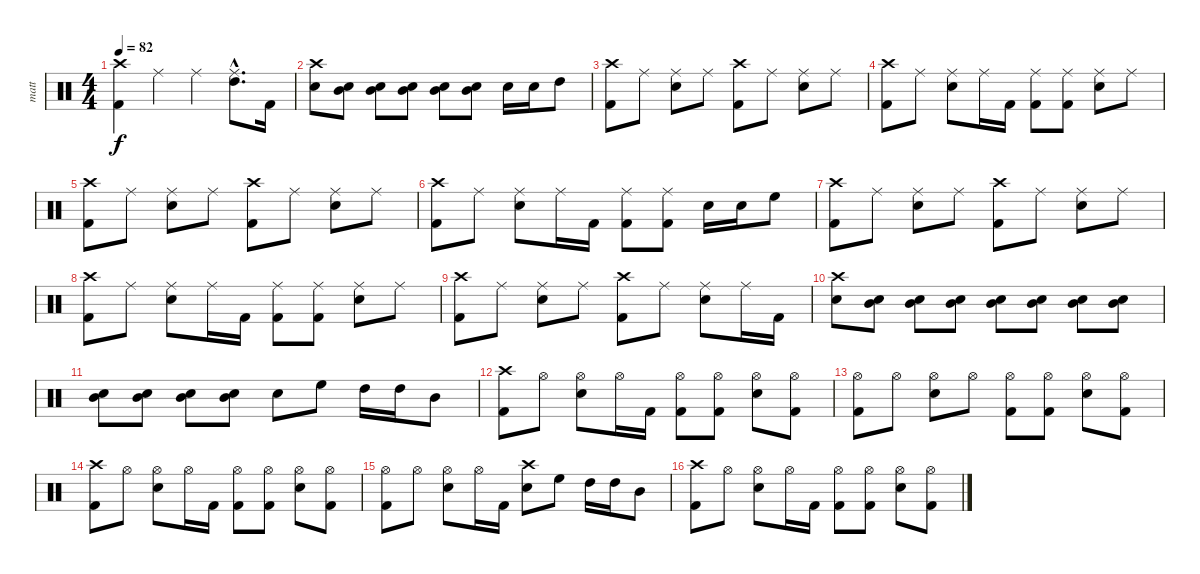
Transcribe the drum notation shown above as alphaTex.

\track ("matt" "matt") {instrument percussion}
\staff {score}
\articulation defaults
\ts (4 4)
\tempo 82
\clef neutral
\ks c
("Crash high (hit)" "Kick (hit) 2").4{dy f} "Ride (middle)".4 "Ride (middle)".4 ("Ride (middle)"{hac} "High Tom (hit)"{hac}).8{d} "Kick (hit) 2".16 |
("Crash high (hit)" "Electric Snare (hit)").8 ("Electric Snare (hit)" "Mid Tom (hit)").8 ("Electric Snare (hit)" "Mid Tom (hit)").8 ("Electric Snare (hit)" "Mid Tom (hit)").8 ("Electric Snare (hit)" "Mid Tom (hit)").8 ("Electric Snare (hit)" "Mid Tom (hit)").8 "Electric Snare (hit)".16 "Electric Snare (hit)".16 "High Tom (hit)".8 |
("Crash high (hit)" "Kick (hit) 2").8 "Ride (middle)".8 ("Ride (middle)" "Electric Snare (hit)").8 "Ride (middle)".8 ("Crash high (hit)" "Kick (hit) 2").8 "Ride (middle)".8 ("Ride (middle)" "Electric Snare (hit)").8 "Ride (middle)".8 |
("Crash high (hit)" "Kick (hit) 2").8 "Ride (middle)".8 ("Ride (middle)" "Electric Snare (hit)").8 "Ride (middle)".16 "Kick (hit) 2".16 ("Ride (middle)" "Kick (hit) 2").8 ("Ride (middle)" "Kick (hit) 2").8 ("Ride (middle)" "Electric Snare (hit)").8 "Ride (middle)".8 |
("Crash high (hit)" "Kick (hit) 2").8 "Ride (middle)".8 ("Ride (middle)" "Electric Snare (hit)").8 "Ride (middle)".8 ("Crash high (hit)" "Kick (hit) 2").8 "Ride (middle)".8 ("Ride (middle)" "Electric Snare (hit)").8 "Ride (middle)".8 |
("Crash high (hit)" "Kick (hit) 2").8 "Ride (middle)".8 ("Ride (middle)" "Electric Snare (hit)").8 "Ride (middle)".16 "Kick (hit) 2".16 ("Ride (middle)" "Kick (hit) 2").8 ("Ride (middle)" "Kick (hit) 2").8 "Electric Snare (hit)".16 "Electric Snare (hit)".16 "High Floor Tom (hit)".8 |
("Crash high (hit)" "Kick (hit) 2").8 "Ride (middle)".8 ("Ride (middle)" "Electric Snare (hit)").8 "Ride (middle)".8 ("Crash high (hit)" "Kick (hit) 2").8 "Ride (middle)".8 ("Ride (middle)" "Electric Snare (hit)").8 "Ride (middle)".8 |
("Crash high (hit)" "Kick (hit) 2").8 "Ride (middle)".8 ("Ride (middle)" "Electric Snare (hit)").8 "Ride (middle)".16 "Kick (hit) 2".16 ("Ride (middle)" "Kick (hit) 2").8 ("Ride (middle)" "Kick (hit) 2").8 ("Ride (middle)" "Electric Snare (hit)").8 "Ride (middle)".8 |
("Crash high (hit)" "Kick (hit) 2").8 "Ride (middle)".8 ("Ride (middle)" "Electric Snare (hit)").8 "Ride (middle)".8 ("Crash high (hit)" "Kick (hit) 2").8 "Ride (middle)".8 ("Ride (middle)" "Electric Snare (hit)").8 "Ride (middle)".16 "Kick (hit) 2".16 |
("Crash high (hit)" "Electric Snare (hit)").8 ("Electric Snare (hit)" "Mid Tom (hit)").8 ("Electric Snare (hit)" "Mid Tom (hit)").8 ("Electric Snare (hit)" "Mid Tom (hit)").8 ("Electric Snare (hit)" "Mid Tom (hit)").8 ("Electric Snare (hit)" "Mid Tom (hit)").8 ("Electric Snare (hit)" "Mid Tom (hit)").8 ("Electric Snare (hit)" "Mid Tom (hit)").8 |
("Electric Snare (hit)" "Mid Tom (hit)").8 ("Electric Snare (hit)" "Mid Tom (hit)").8 ("Electric Snare (hit)" "Mid Tom (hit)").8 ("Electric Snare (hit)" "Mid Tom (hit)").8 "Electric Snare (hit)".8 "High Floor Tom (hit)".8 "High Tom (hit)".16 "High Tom (hit)".16 "Mid Tom (hit)".8 |
("Crash high (hit)" "Kick (hit) 2").8 "Hi-Hat (open)".8 ("Hi-Hat (open)" "Electric Snare (hit)").8 "Hi-Hat (open)".16 "Kick (hit) 2".16 ("Hi-Hat (open)" "Kick (hit) 2").8 ("Hi-Hat (open)" "Kick (hit) 2").8 ("Hi-Hat (open)" "Electric Snare (hit)").8 ("Hi-Hat (open)" "Kick (hit) 2").8 |
("Hi-Hat (open)" "Kick (hit) 2").8 "Hi-Hat (open)".8 ("Hi-Hat (open)" "Electric Snare (hit)").8 "Hi-Hat (open)".8 ("Hi-Hat (open)" "Kick (hit) 2").8 ("Hi-Hat (open)" "Kick (hit) 2").8 ("Hi-Hat (open)" "Electric Snare (hit)").8 ("Hi-Hat (open)" "Kick (hit) 2").8 |
("Crash high (hit)" "Kick (hit) 2").8 "Hi-Hat (open)".8 ("Hi-Hat (open)" "Electric Snare (hit)").8 "Hi-Hat (open)".16 "Kick (hit) 2".16 ("Hi-Hat (open)" "Kick (hit) 2").8 ("Hi-Hat (open)" "Kick (hit) 2").8 ("Hi-Hat (open)" "Electric Snare (hit)").8 ("Hi-Hat (open)" "Kick (hit) 2").8 |
("Hi-Hat (open)" "Kick (hit) 2").8 "Hi-Hat (open)".8 ("Hi-Hat (open)" "Electric Snare (hit)").8 "Hi-Hat (open)".16 "Kick (hit) 2".16 ("Crash high (hit)" "Electric Snare (hit)").8 "High Floor Tom (hit)".8 "High Tom (hit)".16 "High Tom (hit)".16 "Mid Tom (hit)".8 |
("Crash high (hit)" "Kick (hit) 2").8 "Hi-Hat (open)".8 ("Hi-Hat (open)" "Electric Snare (hit)").8 "Hi-Hat (open)".16 "Kick (hit) 2".16 ("Hi-Hat (open)" "Kick (hit) 2").8 ("Hi-Hat (open)" "Kick (hit) 2").8 ("Hi-Hat (open)" "Electric Snare (hit)").8 ("Hi-Hat (open)" "Kick (hit) 2").8
